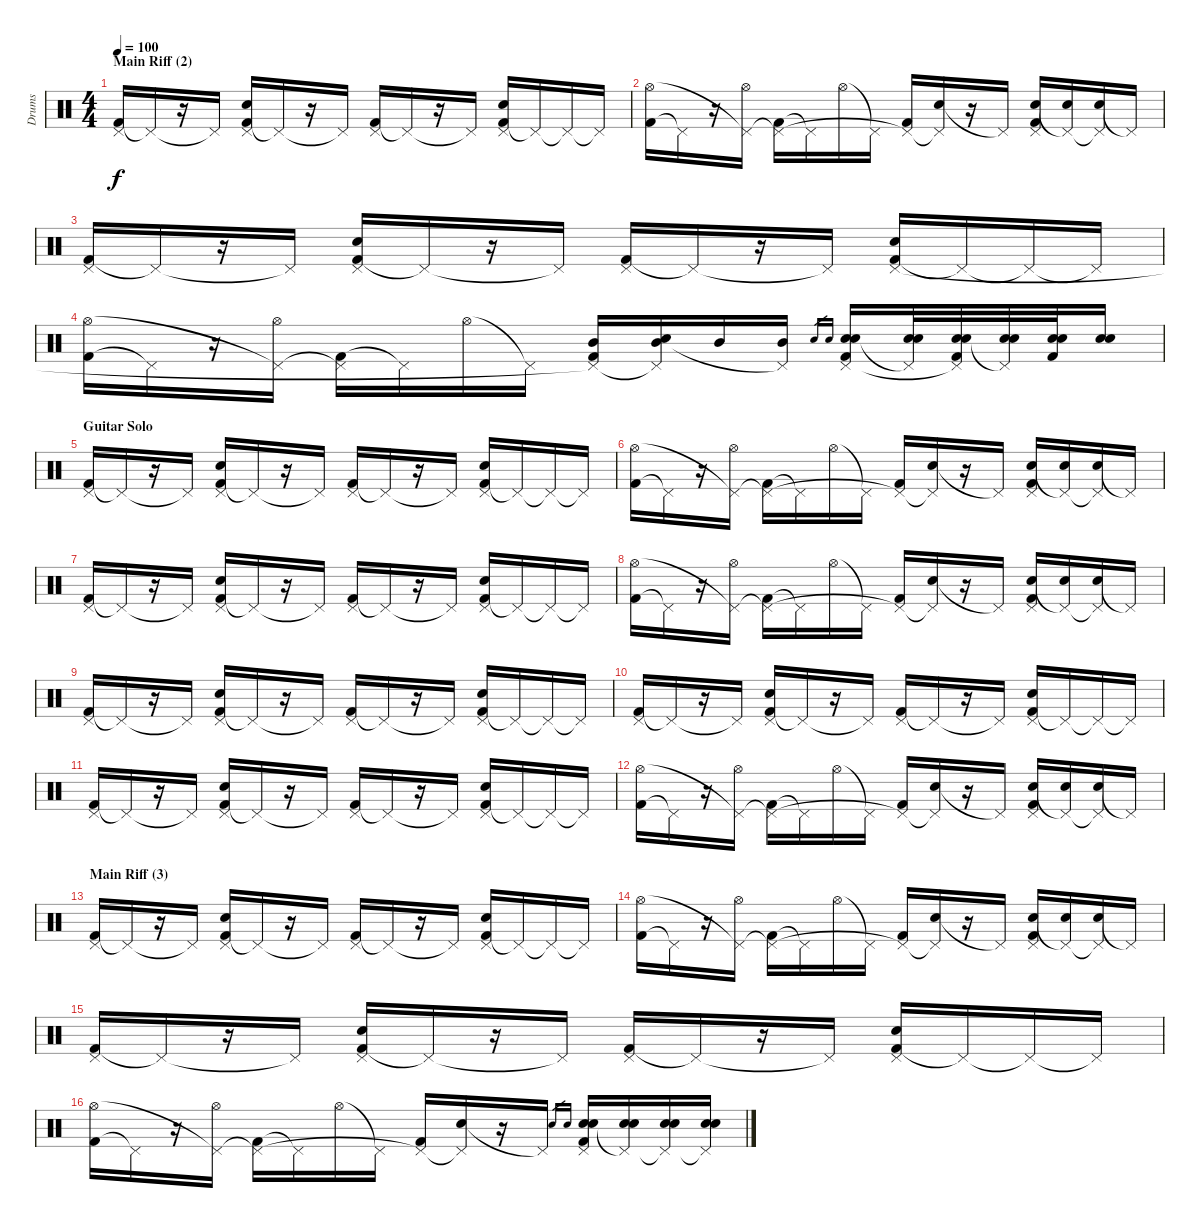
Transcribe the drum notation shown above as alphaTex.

\track ("Drums" "Drums") {instrument percussion}
\staff {score}
\articulation defaults
\ts (4 4)
\section ("" "Main Riff (2)")
\tempo 100
\clef neutral
\ks c
("Kick (hit) 2" "Pedal Hi-Hat (hit)").16{dy f} "Pedal Hi-Hat (hit)"{t}.16 r.16 "Pedal Hi-Hat (hit)"{t}.16 ("Kick (hit) 2" "Snare (hit) 2" "Pedal Hi-Hat (hit)").16 "Pedal Hi-Hat (hit)"{t}.16 r.16 "Pedal Hi-Hat (hit)"{t}.16 ("Kick (hit) 2" "Pedal Hi-Hat (hit)").16 "Pedal Hi-Hat (hit)"{t}.16 r.16 "Pedal Hi-Hat (hit)"{t}.16 ("Kick (hit) 2" "Snare (hit) 2" "Pedal Hi-Hat (hit)").16 "Pedal Hi-Hat (hit)"{t}.16 "Pedal Hi-Hat (hit)"{t}.16 "Pedal Hi-Hat (hit)"{t}.16 |
("Kick (hit) 2" "Hi-Hat (open)").16 "Pedal Hi-Hat (hit)"{t}.16 r.16 ("Hi-Hat (open)" "Pedal Hi-Hat (hit)"{t}).16 ("Kick (hit) 2" "Pedal Hi-Hat (hit)"{t}).16 "Pedal Hi-Hat (hit)"{t}.16 "Hi-Hat (open)".16 "Pedal Hi-Hat (hit)"{t}.16 ("Kick (hit) 2" "Pedal Hi-Hat (hit)"{t}).16 ("Snare (hit) 2" "Pedal Hi-Hat (hit)"{t}).16 r.16 "Pedal Hi-Hat (hit)"{t}.16 ("Kick (hit) 2" "Snare (hit) 2" "Pedal Hi-Hat (hit)").16 ("Snare (hit) 2" "Pedal Hi-Hat (hit)"{t}).16 ("Snare (hit) 2" "Pedal Hi-Hat (hit)"{t}).16 "Pedal Hi-Hat (hit)"{t}.16 |
("Kick (hit) 2" "Pedal Hi-Hat (hit)").16 "Pedal Hi-Hat (hit)"{t}.16 r.16 "Pedal Hi-Hat (hit)"{t}.16 ("Kick (hit) 2" "Snare (hit) 2" "Pedal Hi-Hat (hit)").16 "Pedal Hi-Hat (hit)"{t}.16 r.16 "Pedal Hi-Hat (hit)"{t}.16 ("Kick (hit) 2" "Pedal Hi-Hat (hit)").16 "Pedal Hi-Hat (hit)"{t}.16 r.16 "Pedal Hi-Hat (hit)"{t}.16 ("Kick (hit) 2" "Snare (hit) 2" "Pedal Hi-Hat (hit)").16 "Pedal Hi-Hat (hit)"{t}.16 "Pedal Hi-Hat (hit)"{t}.16 "Pedal Hi-Hat (hit)"{t}.16 |
("Kick (hit) 2" "Hi-Hat (open)").16 "Pedal Hi-Hat (hit)"{t}.16 r.16 ("Hi-Hat (open)" "Pedal Hi-Hat (hit)"{t}).16 ("Kick (hit) 2" "Pedal Hi-Hat (hit)"{t}).16 "Pedal Hi-Hat (hit)"{t}.16 "Hi-Hat (open)".16 "Pedal Hi-Hat (hit)"{t}.16 ("Kick (hit) 2" "Mid Tom (hit)" "Pedal Hi-Hat (hit)"{t}).16 ("Snare (hit) 2" "Mid Tom (hit)" "Pedal Hi-Hat (hit)"{t}).16 "Mid Tom (hit)".16 ("Mid Tom (hit)" "Pedal Hi-Hat (hit)"{t}).16 "Snare (hit) 2"{h}.16{gr} "Electric Snare (hit)"{h}.16{gr} ("Kick (hit) 2" "Electric Snare (hit)" "Snare (hit) 2" "Pedal Hi-Hat (hit)").16 ("Electric Snare (hit)" "Snare (hit) 2" "Pedal Hi-Hat (hit)"{t}).32 ("Kick (hit) 2" "Electric Snare (hit)" "Snare (hit) 2" "Pedal Hi-Hat (hit)"{t}).32 ("Electric Snare (hit)" "Snare (hit) 2" "Pedal Hi-Hat (hit)"{t}).32 ("Kick (hit) 2" "Electric Snare (hit)" "Snare (hit) 2").32 ("Electric Snare (hit)" "Snare (hit) 2").16 |
\section ("" "Guitar Solo")
("Kick (hit) 2" "Pedal Hi-Hat (hit)").16 "Pedal Hi-Hat (hit)"{t}.16 r.16 "Pedal Hi-Hat (hit)"{t}.16 ("Kick (hit) 2" "Snare (hit) 2" "Pedal Hi-Hat (hit)").16 "Pedal Hi-Hat (hit)"{t}.16 r.16 "Pedal Hi-Hat (hit)"{t}.16 ("Kick (hit) 2" "Pedal Hi-Hat (hit)").16 "Pedal Hi-Hat (hit)"{t}.16 r.16 "Pedal Hi-Hat (hit)"{t}.16 ("Kick (hit) 2" "Snare (hit) 2" "Pedal Hi-Hat (hit)").16 "Pedal Hi-Hat (hit)"{t}.16 "Pedal Hi-Hat (hit)"{t}.16 "Pedal Hi-Hat (hit)"{t}.16 |
("Kick (hit) 2" "Hi-Hat (open)").16 "Pedal Hi-Hat (hit)"{t}.16 r.16 ("Hi-Hat (open)" "Pedal Hi-Hat (hit)"{t}).16 ("Kick (hit) 2" "Pedal Hi-Hat (hit)"{t}).16 "Pedal Hi-Hat (hit)"{t}.16 "Hi-Hat (open)".16 "Pedal Hi-Hat (hit)"{t}.16 ("Kick (hit) 2" "Pedal Hi-Hat (hit)"{t}).16 ("Snare (hit) 2" "Pedal Hi-Hat (hit)"{t}).16 r.16 "Pedal Hi-Hat (hit)"{t}.16 ("Kick (hit) 2" "Snare (hit) 2" "Pedal Hi-Hat (hit)").16 ("Snare (hit) 2" "Pedal Hi-Hat (hit)"{t}).16 ("Snare (hit) 2" "Pedal Hi-Hat (hit)"{t}).16 "Pedal Hi-Hat (hit)"{t}.16 |
("Kick (hit) 2" "Pedal Hi-Hat (hit)").16 "Pedal Hi-Hat (hit)"{t}.16 r.16 "Pedal Hi-Hat (hit)"{t}.16 ("Kick (hit) 2" "Snare (hit) 2" "Pedal Hi-Hat (hit)").16 "Pedal Hi-Hat (hit)"{t}.16 r.16 "Pedal Hi-Hat (hit)"{t}.16 ("Kick (hit) 2" "Pedal Hi-Hat (hit)").16 "Pedal Hi-Hat (hit)"{t}.16 r.16 "Pedal Hi-Hat (hit)"{t}.16 ("Kick (hit) 2" "Snare (hit) 2" "Pedal Hi-Hat (hit)").16 "Pedal Hi-Hat (hit)"{t}.16 "Pedal Hi-Hat (hit)"{t}.16 "Pedal Hi-Hat (hit)"{t}.16 |
("Kick (hit) 2" "Hi-Hat (open)").16 "Pedal Hi-Hat (hit)"{t}.16 r.16 ("Hi-Hat (open)" "Pedal Hi-Hat (hit)"{t}).16 ("Kick (hit) 2" "Pedal Hi-Hat (hit)"{t}).16 "Pedal Hi-Hat (hit)"{t}.16 "Hi-Hat (open)".16 "Pedal Hi-Hat (hit)"{t}.16 ("Kick (hit) 2" "Pedal Hi-Hat (hit)"{t}).16 ("Snare (hit) 2" "Pedal Hi-Hat (hit)"{t}).16 r.16 "Pedal Hi-Hat (hit)"{t}.16 ("Kick (hit) 2" "Snare (hit) 2" "Pedal Hi-Hat (hit)").16 ("Snare (hit) 2" "Pedal Hi-Hat (hit)"{t}).16 ("Snare (hit) 2" "Pedal Hi-Hat (hit)"{t}).16 "Pedal Hi-Hat (hit)"{t}.16 |
("Kick (hit) 2" "Pedal Hi-Hat (hit)").16 "Pedal Hi-Hat (hit)"{t}.16 r.16 "Pedal Hi-Hat (hit)"{t}.16 ("Kick (hit) 2" "Snare (hit) 2" "Pedal Hi-Hat (hit)").16 "Pedal Hi-Hat (hit)"{t}.16 r.16 "Pedal Hi-Hat (hit)"{t}.16 ("Kick (hit) 2" "Pedal Hi-Hat (hit)").16 "Pedal Hi-Hat (hit)"{t}.16 r.16 "Pedal Hi-Hat (hit)"{t}.16 ("Kick (hit) 2" "Snare (hit) 2" "Pedal Hi-Hat (hit)").16 "Pedal Hi-Hat (hit)"{t}.16 "Pedal Hi-Hat (hit)"{t}.16 "Pedal Hi-Hat (hit)"{t}.16 |
("Kick (hit) 2" "Pedal Hi-Hat (hit)").16 "Pedal Hi-Hat (hit)"{t}.16 r.16 "Pedal Hi-Hat (hit)"{t}.16 ("Kick (hit) 2" "Snare (hit) 2" "Pedal Hi-Hat (hit)").16 "Pedal Hi-Hat (hit)"{t}.16 r.16 "Pedal Hi-Hat (hit)"{t}.16 ("Kick (hit) 2" "Pedal Hi-Hat (hit)").16 "Pedal Hi-Hat (hit)"{t}.16 r.16 "Pedal Hi-Hat (hit)"{t}.16 ("Kick (hit) 2" "Snare (hit) 2" "Pedal Hi-Hat (hit)").16 "Pedal Hi-Hat (hit)"{t}.16 "Pedal Hi-Hat (hit)"{t}.16 "Pedal Hi-Hat (hit)"{t}.16 |
("Kick (hit) 2" "Pedal Hi-Hat (hit)").16 "Pedal Hi-Hat (hit)"{t}.16 r.16 "Pedal Hi-Hat (hit)"{t}.16 ("Kick (hit) 2" "Snare (hit) 2" "Pedal Hi-Hat (hit)").16 "Pedal Hi-Hat (hit)"{t}.16 r.16 "Pedal Hi-Hat (hit)"{t}.16 ("Kick (hit) 2" "Pedal Hi-Hat (hit)").16 "Pedal Hi-Hat (hit)"{t}.16 r.16 "Pedal Hi-Hat (hit)"{t}.16 ("Kick (hit) 2" "Snare (hit) 2" "Pedal Hi-Hat (hit)").16 "Pedal Hi-Hat (hit)"{t}.16 "Pedal Hi-Hat (hit)"{t}.16 "Pedal Hi-Hat (hit)"{t}.16 |
("Kick (hit) 2" "Hi-Hat (open)").16 "Pedal Hi-Hat (hit)"{t}.16 r.16 ("Hi-Hat (open)" "Pedal Hi-Hat (hit)"{t}).16 ("Kick (hit) 2" "Pedal Hi-Hat (hit)"{t}).16 "Pedal Hi-Hat (hit)"{t}.16 "Hi-Hat (open)".16 "Pedal Hi-Hat (hit)"{t}.16 ("Kick (hit) 2" "Pedal Hi-Hat (hit)"{t}).16 ("Snare (hit) 2" "Pedal Hi-Hat (hit)"{t}).16 r.16 "Pedal Hi-Hat (hit)"{t}.16 ("Kick (hit) 2" "Snare (hit) 2" "Pedal Hi-Hat (hit)").16 ("Snare (hit) 2" "Pedal Hi-Hat (hit)"{t}).16 ("Snare (hit) 2" "Pedal Hi-Hat (hit)"{t}).16 "Pedal Hi-Hat (hit)"{t}.16 |
\section ("" "Main Riff (3)")
("Kick (hit) 2" "Pedal Hi-Hat (hit)").16 "Pedal Hi-Hat (hit)"{t}.16 r.16 "Pedal Hi-Hat (hit)"{t}.16 ("Kick (hit) 2" "Snare (hit) 2" "Pedal Hi-Hat (hit)").16 "Pedal Hi-Hat (hit)"{t}.16 r.16 "Pedal Hi-Hat (hit)"{t}.16 ("Kick (hit) 2" "Pedal Hi-Hat (hit)").16 "Pedal Hi-Hat (hit)"{t}.16 r.16 "Pedal Hi-Hat (hit)"{t}.16 ("Kick (hit) 2" "Snare (hit) 2" "Pedal Hi-Hat (hit)").16 "Pedal Hi-Hat (hit)"{t}.16 "Pedal Hi-Hat (hit)"{t}.16 "Pedal Hi-Hat (hit)"{t}.16 |
("Kick (hit) 2" "Hi-Hat (open)").16 "Pedal Hi-Hat (hit)"{t}.16 r.16 ("Hi-Hat (open)" "Pedal Hi-Hat (hit)"{t}).16 ("Kick (hit) 2" "Pedal Hi-Hat (hit)"{t}).16 "Pedal Hi-Hat (hit)"{t}.16 "Hi-Hat (open)".16 "Pedal Hi-Hat (hit)"{t}.16 ("Kick (hit) 2" "Pedal Hi-Hat (hit)"{t}).16 ("Snare (hit) 2" "Pedal Hi-Hat (hit)"{t}).16 r.16 "Pedal Hi-Hat (hit)"{t}.16 ("Kick (hit) 2" "Snare (hit) 2" "Pedal Hi-Hat (hit)").16 ("Snare (hit) 2" "Pedal Hi-Hat (hit)"{t}).16 ("Snare (hit) 2" "Pedal Hi-Hat (hit)"{t}).16 "Pedal Hi-Hat (hit)"{t}.16 |
("Kick (hit) 2" "Pedal Hi-Hat (hit)").16 "Pedal Hi-Hat (hit)"{t}.16 r.16 "Pedal Hi-Hat (hit)"{t}.16 ("Kick (hit) 2" "Snare (hit) 2" "Pedal Hi-Hat (hit)").16 "Pedal Hi-Hat (hit)"{t}.16 r.16 "Pedal Hi-Hat (hit)"{t}.16 ("Kick (hit) 2" "Pedal Hi-Hat (hit)").16 "Pedal Hi-Hat (hit)"{t}.16 r.16 "Pedal Hi-Hat (hit)"{t}.16 ("Kick (hit) 2" "Snare (hit) 2" "Pedal Hi-Hat (hit)").16 "Pedal Hi-Hat (hit)"{t}.16 "Pedal Hi-Hat (hit)"{t}.16 "Pedal Hi-Hat (hit)"{t}.16 |
("Kick (hit) 2" "Hi-Hat (open)").16 "Pedal Hi-Hat (hit)"{t}.16 r.16 ("Hi-Hat (open)" "Pedal Hi-Hat (hit)"{t}).16 ("Kick (hit) 2" "Pedal Hi-Hat (hit)"{t}).16 "Pedal Hi-Hat (hit)"{t}.16 "Hi-Hat (open)".16 "Pedal Hi-Hat (hit)"{t}.16 ("Kick (hit) 2" "Pedal Hi-Hat (hit)"{t}).16 ("Snare (hit) 2" "Pedal Hi-Hat (hit)"{t}).16 r.16 "Pedal Hi-Hat (hit)"{t}.16 "Snare (hit) 2"{h}.16{gr} "Electric Snare (hit)"{h}.16{gr} ("Kick (hit) 2" "Electric Snare (hit)" "Snare (hit) 2" "Pedal Hi-Hat (hit)").16 ("Electric Snare (hit)" "Snare (hit) 2" "Pedal Hi-Hat (hit)"{t}).16 ("Electric Snare (hit)" "Snare (hit) 2" "Pedal Hi-Hat (hit)"{t}).16 ("Electric Snare (hit)" "Snare (hit) 2" "Pedal Hi-Hat (hit)"{t}).16
